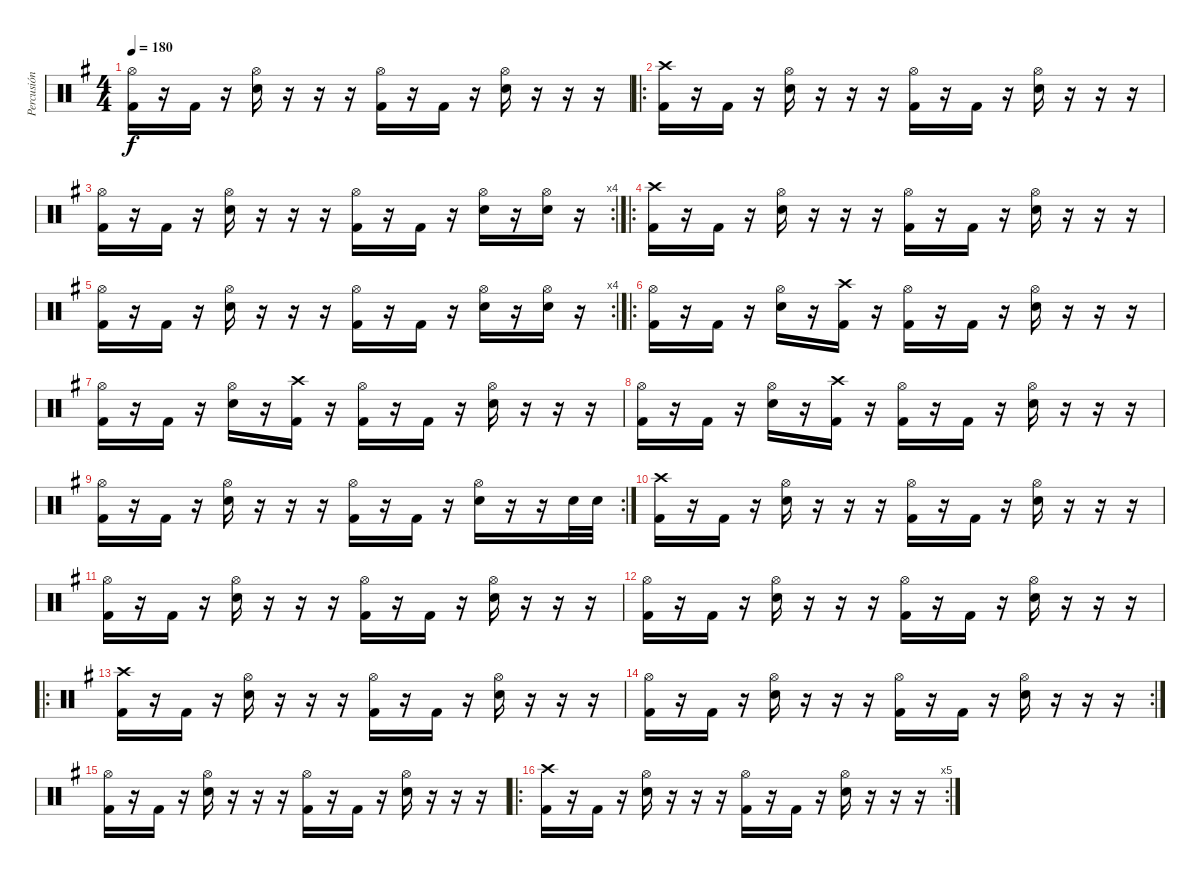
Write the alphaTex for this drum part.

\track ("Percusión" "Percusión") {instrument percussion}
\staff {score}
\articulation defaults
\ts (4 4)
\tempo 180
\clef neutral
\ks g
("Hi-Hat (open)" "Kick (hit) 2").16{dy f} r.16 "Kick (hit) 2".16 r.16 ("Hi-Hat (open)" "Snare (hit) 2").16 r.16 r.16 r.16 ("Hi-Hat (open)" "Kick (hit) 2").16 r.16 "Kick (hit) 2".16 r.16 ("Hi-Hat (open)" "Snare (hit) 2").16 r.16 r.16 r.16 |
\ro
("Crash high (hit)" "Kick (hit) 2").16 r.16 "Kick (hit) 2".16 r.16 ("Hi-Hat (open)" "Snare (hit) 2").16 r.16 r.16 r.16 ("Hi-Hat (open)" "Kick (hit) 2").16 r.16 "Kick (hit) 2".16 r.16 ("Hi-Hat (open)" "Snare (hit) 2").16 r.16 r.16 r.16 |
\rc 4
("Hi-Hat (open)" "Kick (hit) 2").16 r.16 "Kick (hit) 2".16 r.16 ("Hi-Hat (open)" "Snare (hit) 2").16 r.16 r.16 r.16 ("Hi-Hat (open)" "Kick (hit) 2").16 r.16 "Kick (hit) 2".16 r.16 ("Hi-Hat (open)" "Snare (hit) 2").16 r.16 ("Hi-Hat (open)" "Snare (hit) 2").16 r.16 |
\ro
("Crash high (hit)" "Kick (hit) 2").16 r.16 "Kick (hit) 2".16 r.16 ("Hi-Hat (open)" "Snare (hit) 2").16 r.16 r.16 r.16 ("Hi-Hat (open)" "Kick (hit) 2").16 r.16 "Kick (hit) 2".16 r.16 ("Hi-Hat (open)" "Snare (hit) 2").16 r.16 r.16 r.16 |
\rc 4
("Hi-Hat (open)" "Kick (hit) 2").16 r.16 "Kick (hit) 2".16 r.16 ("Hi-Hat (open)" "Snare (hit) 2").16 r.16 r.16 r.16 ("Hi-Hat (open)" "Kick (hit) 2").16 r.16 "Kick (hit) 2".16 r.16 ("Hi-Hat (open)" "Snare (hit) 2").16 r.16 ("Hi-Hat (open)" "Snare (hit) 2").16 r.16 |
\ro
("Hi-Hat (open)" "Kick (hit) 2").16 r.16 "Kick (hit) 2".16 r.16 ("Hi-Hat (open)" "Snare (hit) 2").16 r.16 ("Crash high (hit)" "Kick (hit) 2").16 r.16 ("Hi-Hat (open)" "Kick (hit) 2").16 r.16 "Kick (hit) 2".16 r.16 ("Hi-Hat (open)" "Snare (hit) 2").16 r.16 r.16 r.16 |
("Hi-Hat (open)" "Kick (hit) 2").16 r.16 "Kick (hit) 2".16 r.16 ("Hi-Hat (open)" "Snare (hit) 2").16 r.16 ("Crash high (hit)" "Kick (hit) 2").16 r.16 ("Hi-Hat (open)" "Kick (hit) 2").16 r.16 "Kick (hit) 2".16 r.16 ("Hi-Hat (open)" "Snare (hit) 2").16 r.16 r.16 r.16 |
("Hi-Hat (open)" "Kick (hit) 2").16 r.16 "Kick (hit) 2".16 r.16 ("Hi-Hat (open)" "Snare (hit) 2").16 r.16 ("Crash high (hit)" "Kick (hit) 2").16 r.16 ("Hi-Hat (open)" "Kick (hit) 2").16 r.16 "Kick (hit) 2".16 r.16 ("Hi-Hat (open)" "Snare (hit) 2").16 r.16 r.16 r.16 |
\rc 2
("Hi-Hat (open)" "Kick (hit) 2").16 r.16 "Kick (hit) 2".16 r.16 ("Hi-Hat (open)" "Snare (hit) 2").16 r.16 r.16 r.16 ("Hi-Hat (open)" "Kick (hit) 2").16 r.16 "Kick (hit) 2".16 r.16 ("Hi-Hat (open)" "Snare (hit) 2").16 r.16 r.16 "Snare (hit) 2".32 "Snare (hit) 2".32 |
("Crash high (hit)" "Kick (hit) 2").16 r.16 "Kick (hit) 2".16 r.16 ("Hi-Hat (open)" "Snare (hit) 2").16 r.16 r.16 r.16 ("Hi-Hat (open)" "Kick (hit) 2").16 r.16 "Kick (hit) 2".16 r.16 ("Hi-Hat (open)" "Snare (hit) 2").16 r.16 r.16 r.16 |
("Hi-Hat (open)" "Kick (hit) 2").16 r.16 "Kick (hit) 2".16 r.16 ("Hi-Hat (open)" "Snare (hit) 2").16 r.16 r.16 r.16 ("Hi-Hat (open)" "Kick (hit) 2").16 r.16 "Kick (hit) 2".16 r.16 ("Hi-Hat (open)" "Snare (hit) 2").16 r.16 r.16 r.16 |
("Hi-Hat (open)" "Kick (hit) 2").16 r.16 "Kick (hit) 2".16 r.16 ("Hi-Hat (open)" "Snare (hit) 2").16 r.16 r.16 r.16 ("Hi-Hat (open)" "Kick (hit) 2").16 r.16 "Kick (hit) 2".16 r.16 ("Hi-Hat (open)" "Snare (hit) 2").16 r.16 r.16 r.16 |
\ro
("Crash high (hit)" "Kick (hit) 2").16 r.16 "Kick (hit) 2".16 r.16 ("Hi-Hat (open)" "Snare (hit) 2").16 r.16 r.16 r.16 ("Hi-Hat (open)" "Kick (hit) 2").16 r.16 "Kick (hit) 2".16 r.16 ("Hi-Hat (open)" "Snare (hit) 2").16 r.16 r.16 r.16 |
\rc 2
("Hi-Hat (open)" "Kick (hit) 2").16 r.16 "Kick (hit) 2".16 r.16 ("Hi-Hat (open)" "Snare (hit) 2").16 r.16 r.16 r.16 ("Hi-Hat (open)" "Kick (hit) 2").16 r.16 "Kick (hit) 2".16 r.16 ("Hi-Hat (open)" "Snare (hit) 2").16 r.16 r.16 r.16 |
("Hi-Hat (open)" "Kick (hit) 2").16 r.16 "Kick (hit) 2".16 r.16 ("Hi-Hat (open)" "Snare (hit) 2").16 r.16 r.16 r.16 ("Hi-Hat (open)" "Kick (hit) 2").16 r.16 "Kick (hit) 2".16 r.16 ("Hi-Hat (open)" "Snare (hit) 2").16 r.16 r.16 r.16 |
\ro
\rc 5
("Crash high (hit)" "Kick (hit) 2").16 r.16 "Kick (hit) 2".16 r.16 ("Hi-Hat (open)" "Snare (hit) 2").16 r.16 r.16 r.16 ("Hi-Hat (open)" "Kick (hit) 2").16 r.16 "Kick (hit) 2".16 r.16 ("Hi-Hat (open)" "Snare (hit) 2").16 r.16 r.16 r.16
